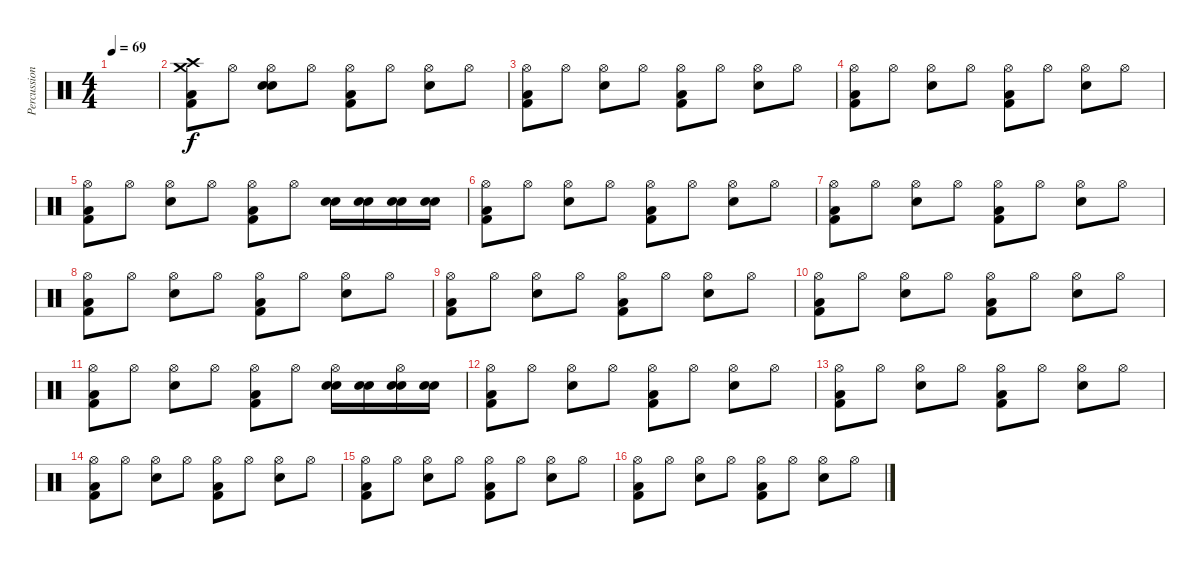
\track ("Percussions" "Percussion") {instrument percussion}
\staff {score}
\articulation defaults
\ts (4 4)
\tempo 69
\clef neutral
\ks c
|
("Crash medium (hit)" "Crash high (hit)" "Low Floor Tom (hit)" "Kick (hit) 2").8 "Hi-Hat (open)".8 ("Hi-Hat (open)" "Snare (hit) 2" "Electric Snare (hit)").8 "Hi-Hat (open)".8 ("Hi-Hat (open)" "Low Floor Tom (hit)" "Kick (hit) 2").8 "Hi-Hat (open)".8 ("Hi-Hat (open)" "Electric Snare (hit)").8 "Hi-Hat (open)".8 |
("Hi-Hat (open)" "Low Floor Tom (hit)" "Kick (hit) 2").8 "Hi-Hat (open)".8 ("Hi-Hat (open)" "Electric Snare (hit)").8 "Hi-Hat (open)".8 ("Hi-Hat (open)" "Low Floor Tom (hit)" "Kick (hit) 2").8 "Hi-Hat (open)".8 ("Hi-Hat (open)" "Electric Snare (hit)").8 "Hi-Hat (open)".8 |
("Hi-Hat (open)" "Low Floor Tom (hit)" "Kick (hit) 2").8 "Hi-Hat (open)".8 ("Hi-Hat (open)" "Electric Snare (hit)").8 "Hi-Hat (open)".8 ("Hi-Hat (open)" "Low Floor Tom (hit)" "Kick (hit) 2").8 "Hi-Hat (open)".8 ("Hi-Hat (open)" "Electric Snare (hit)").8 "Hi-Hat (open)".8 |
("Hi-Hat (open)" "Low Floor Tom (hit)" "Kick (hit) 2").8 "Hi-Hat (open)".8 ("Hi-Hat (open)" "Electric Snare (hit)").8 "Hi-Hat (open)".8 ("Hi-Hat (open)" "Low Floor Tom (hit)" "Kick (hit) 2").8 "Hi-Hat (open)".8 ("Snare (hit) 2" "Electric Snare (hit)").16 ("Snare (hit) 2" "Electric Snare (hit)").16 ("Snare (hit) 2" "Electric Snare (hit)").16 ("Snare (hit) 2" "Electric Snare (hit)").16 |
("Hi-Hat (open)" "Low Floor Tom (hit)" "Kick (hit) 2").8 "Hi-Hat (open)".8 ("Hi-Hat (open)" "Electric Snare (hit)").8 "Hi-Hat (open)".8 ("Hi-Hat (open)" "Low Floor Tom (hit)" "Kick (hit) 2").8 "Hi-Hat (open)".8 ("Hi-Hat (open)" "Electric Snare (hit)").8 "Hi-Hat (open)".8 |
("Hi-Hat (open)" "Low Floor Tom (hit)" "Kick (hit) 2").8 "Hi-Hat (open)".8 ("Hi-Hat (open)" "Electric Snare (hit)").8 "Hi-Hat (open)".8 ("Hi-Hat (open)" "Low Floor Tom (hit)" "Kick (hit) 2").8 "Hi-Hat (open)".8 ("Hi-Hat (open)" "Electric Snare (hit)").8 "Hi-Hat (open)".8 |
("Hi-Hat (open)" "Low Floor Tom (hit)" "Kick (hit) 2").8 "Hi-Hat (open)".8 ("Hi-Hat (open)" "Electric Snare (hit)").8 "Hi-Hat (open)".8 ("Hi-Hat (open)" "Low Floor Tom (hit)" "Kick (hit) 2").8 "Hi-Hat (open)".8 ("Hi-Hat (open)" "Electric Snare (hit)").8 "Hi-Hat (open)".8 |
("Hi-Hat (open)" "Low Floor Tom (hit)" "Kick (hit) 2").8 "Hi-Hat (open)".8 ("Hi-Hat (open)" "Electric Snare (hit)").8 "Hi-Hat (open)".8 ("Hi-Hat (open)" "Low Floor Tom (hit)" "Kick (hit) 2").8 "Hi-Hat (open)".8 ("Hi-Hat (open)" "Electric Snare (hit)").8 "Hi-Hat (open)".8 |
("Hi-Hat (open)" "Low Floor Tom (hit)" "Kick (hit) 2").8 "Hi-Hat (open)".8 ("Hi-Hat (open)" "Electric Snare (hit)").8 "Hi-Hat (open)".8 ("Hi-Hat (open)" "Low Floor Tom (hit)" "Kick (hit) 2").8 "Hi-Hat (open)".8 ("Hi-Hat (open)" "Electric Snare (hit)").8 "Hi-Hat (open)".8 |
("Hi-Hat (open)" "Low Floor Tom (hit)" "Kick (hit) 2").8 "Hi-Hat (open)".8 ("Hi-Hat (open)" "Electric Snare (hit)").8 "Hi-Hat (open)".8 ("Hi-Hat (open)" "Low Floor Tom (hit)" "Kick (hit) 2").8 "Hi-Hat (open)".8 ("Hi-Hat (open)" "Snare (hit) 2" "Electric Snare (hit)").16 ("Snare (hit) 2" "Electric Snare (hit)").16 ("Hi-Hat (open)" "Snare (hit) 2" "Electric Snare (hit)").16 ("Snare (hit) 2" "Electric Snare (hit)").16 |
("Hi-Hat (open)" "Low Floor Tom (hit)" "Kick (hit) 2").8 "Hi-Hat (open)".8 ("Hi-Hat (open)" "Electric Snare (hit)").8 "Hi-Hat (open)".8 ("Hi-Hat (open)" "Low Floor Tom (hit)" "Kick (hit) 2").8 "Hi-Hat (open)".8 ("Hi-Hat (open)" "Electric Snare (hit)").8 "Hi-Hat (open)".8 |
("Hi-Hat (open)" "Low Floor Tom (hit)" "Kick (hit) 2").8 "Hi-Hat (open)".8 ("Hi-Hat (open)" "Electric Snare (hit)").8 "Hi-Hat (open)".8 ("Hi-Hat (open)" "Low Floor Tom (hit)" "Kick (hit) 2").8 "Hi-Hat (open)".8 ("Hi-Hat (open)" "Electric Snare (hit)").8 "Hi-Hat (open)".8 |
("Hi-Hat (open)" "Low Floor Tom (hit)" "Kick (hit) 2").8 "Hi-Hat (open)".8 ("Hi-Hat (open)" "Electric Snare (hit)").8 "Hi-Hat (open)".8 ("Hi-Hat (open)" "Low Floor Tom (hit)" "Kick (hit) 2").8 "Hi-Hat (open)".8 ("Hi-Hat (open)" "Electric Snare (hit)").8 "Hi-Hat (open)".8 |
("Hi-Hat (open)" "Low Floor Tom (hit)" "Kick (hit) 2").8 "Hi-Hat (open)".8 ("Hi-Hat (open)" "Electric Snare (hit)").8 "Hi-Hat (open)".8 ("Hi-Hat (open)" "Low Floor Tom (hit)" "Kick (hit) 2").8 "Hi-Hat (open)".8 ("Hi-Hat (open)" "Electric Snare (hit)").8 "Hi-Hat (open)".8 |
("Hi-Hat (open)" "Low Floor Tom (hit)" "Kick (hit) 2").8 "Hi-Hat (open)".8 ("Hi-Hat (open)" "Electric Snare (hit)").8 "Hi-Hat (open)".8 ("Hi-Hat (open)" "Low Floor Tom (hit)" "Kick (hit) 2").8 "Hi-Hat (open)".8 ("Hi-Hat (open)" "Electric Snare (hit)").8 "Hi-Hat (open)".8
